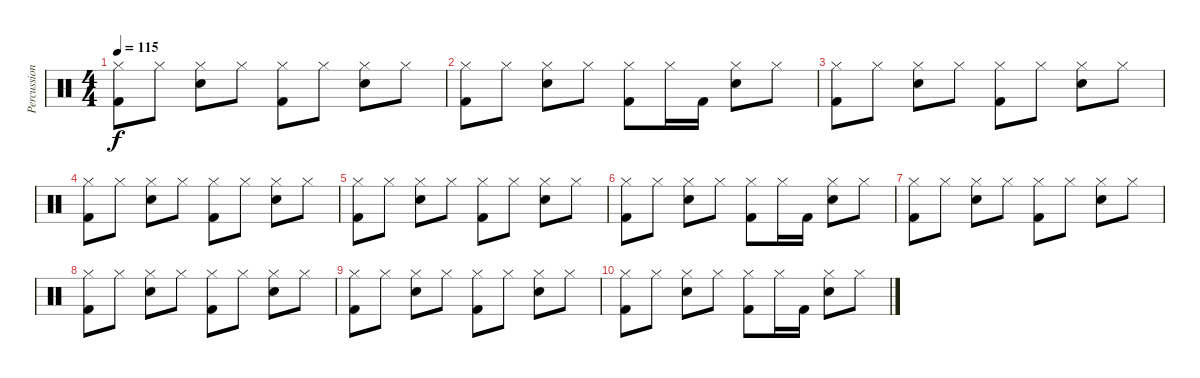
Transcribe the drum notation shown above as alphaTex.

\track ("Percussion" "Percussion") {instrument percussion}
\staff {score}
\articulation defaults
\ts (4 4)
\tempo 115
\clef neutral
\ks c
("Hi-Hat (closed)" "Kick (hit) 2").8{dy f} "Hi-Hat (closed)".8 ("Hi-Hat (closed)" "Snare (hit) 2").8 "Hi-Hat (closed)".8 ("Hi-Hat (closed)" "Kick (hit) 2").8 "Hi-Hat (closed)".8 ("Hi-Hat (closed)" "Snare (hit) 2").8 "Hi-Hat (closed)".8 |
("Hi-Hat (closed)" "Kick (hit) 2").8 "Hi-Hat (closed)".8 ("Hi-Hat (closed)" "Snare (hit) 2").8 "Hi-Hat (closed)".8 ("Hi-Hat (closed)" "Kick (hit) 2").8 "Hi-Hat (closed)".16 "Kick (hit) 2".16 ("Hi-Hat (closed)" "Snare (hit) 2").8 "Hi-Hat (closed)".8 |
("Hi-Hat (closed)" "Kick (hit) 2").8 "Hi-Hat (closed)".8 ("Hi-Hat (closed)" "Snare (hit) 2").8 "Hi-Hat (closed)".8 ("Hi-Hat (closed)" "Kick (hit) 2").8 "Hi-Hat (closed)".8 ("Hi-Hat (closed)" "Snare (hit) 2").8 "Hi-Hat (closed)".8 |
("Hi-Hat (closed)" "Kick (hit) 2").8 "Hi-Hat (closed)".8 ("Hi-Hat (closed)" "Snare (hit) 2").8 "Hi-Hat (closed)".8 ("Hi-Hat (closed)" "Kick (hit) 2").8 "Hi-Hat (closed)".8 ("Hi-Hat (closed)" "Snare (hit) 2").8 "Hi-Hat (closed)".8 |
("Hi-Hat (closed)" "Kick (hit) 2").8 "Hi-Hat (closed)".8 ("Hi-Hat (closed)" "Snare (hit) 2").8 "Hi-Hat (closed)".8 ("Hi-Hat (closed)" "Kick (hit) 2").8 "Hi-Hat (closed)".8 ("Hi-Hat (closed)" "Snare (hit) 2").8 "Hi-Hat (closed)".8 |
("Hi-Hat (closed)" "Kick (hit) 2").8 "Hi-Hat (closed)".8 ("Hi-Hat (closed)" "Snare (hit) 2").8 "Hi-Hat (closed)".8 ("Hi-Hat (closed)" "Kick (hit) 2").8 "Hi-Hat (closed)".16 "Kick (hit) 2".16 ("Hi-Hat (closed)" "Snare (hit) 2").8 "Hi-Hat (closed)".8 |
("Hi-Hat (closed)" "Kick (hit) 2").8 "Hi-Hat (closed)".8 ("Hi-Hat (closed)" "Snare (hit) 2").8 "Hi-Hat (closed)".8 ("Hi-Hat (closed)" "Kick (hit) 2").8 "Hi-Hat (closed)".8 ("Hi-Hat (closed)" "Snare (hit) 2").8 "Hi-Hat (closed)".8 |
("Hi-Hat (closed)" "Kick (hit) 2").8 "Hi-Hat (closed)".8 ("Hi-Hat (closed)" "Snare (hit) 2").8 "Hi-Hat (closed)".8 ("Hi-Hat (closed)" "Kick (hit) 2").8 "Hi-Hat (closed)".8 ("Hi-Hat (closed)" "Snare (hit) 2").8 "Hi-Hat (closed)".8 |
("Hi-Hat (closed)" "Kick (hit) 2").8 "Hi-Hat (closed)".8 ("Hi-Hat (closed)" "Snare (hit) 2").8 "Hi-Hat (closed)".8 ("Hi-Hat (closed)" "Kick (hit) 2").8 "Hi-Hat (closed)".8 ("Hi-Hat (closed)" "Snare (hit) 2").8 "Hi-Hat (closed)".8 |
("Hi-Hat (closed)" "Kick (hit) 2").8 "Hi-Hat (closed)".8 ("Hi-Hat (closed)" "Snare (hit) 2").8 "Hi-Hat (closed)".8 ("Hi-Hat (closed)" "Kick (hit) 2").8 "Hi-Hat (closed)".16 "Kick (hit) 2".16 ("Hi-Hat (closed)" "Snare (hit) 2").8 "Hi-Hat (closed)".8
